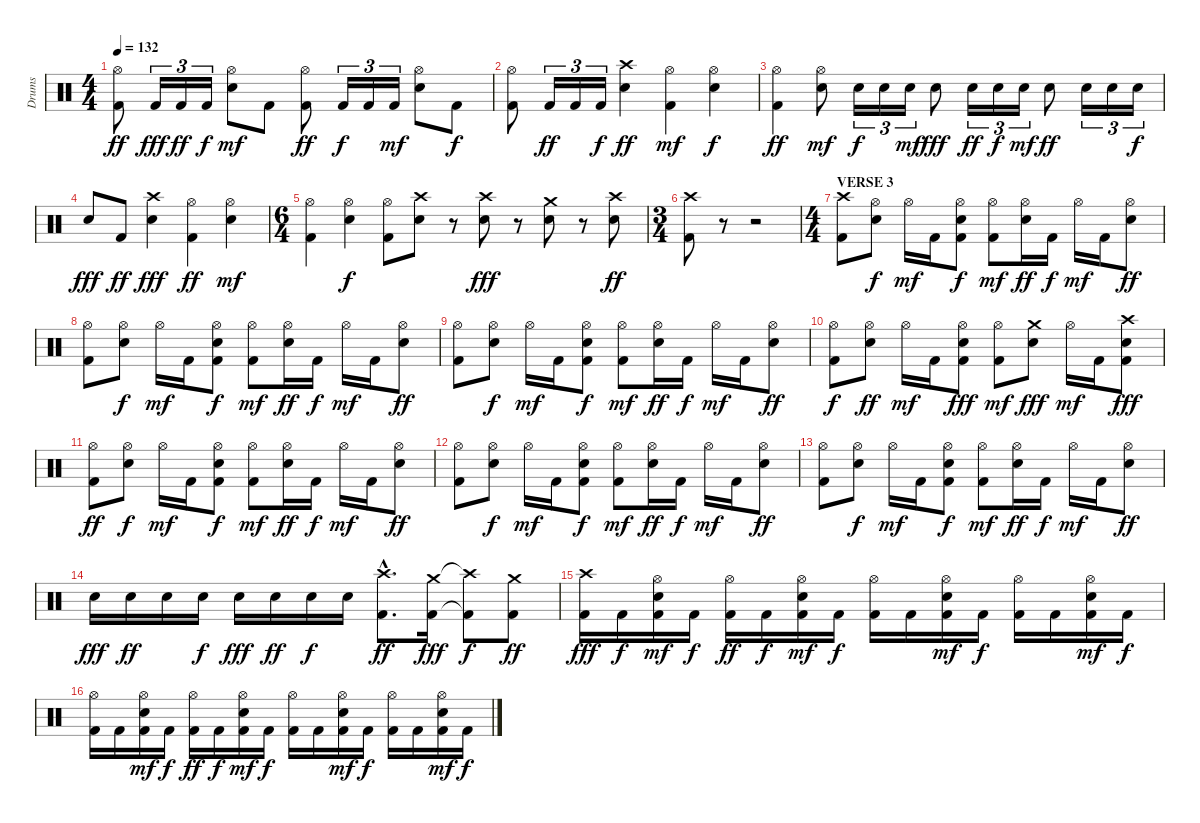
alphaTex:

\track ("Drums" "Drums") {instrument percussion}
\staff {score}
\articulation defaults
\ts (4 4)
\tempo 132
\clef neutral
\ks c
("Hi-Hat (open)" "Kick (hit) 2").8{dy ff} "Kick (hit) 2".16{tu (3 2) dy fff} "Kick (hit) 2".16{tu (3 2) dy ff} "Kick (hit) 2".16{tu (3 2) dy f} ("Hi-Hat (open)" "Electric Snare (hit)").8{dy mf} "Kick (hit) 2".8 ("Hi-Hat (open)" "Kick (hit) 2").8{dy ff} "Kick (hit) 2".16{tu (3 2) dy f} "Kick (hit) 2".16{tu (3 2)} "Kick (hit) 2".16{tu (3 2) dy mf} ("Hi-Hat (open)" "Electric Snare (hit)").8 "Kick (hit) 2".8{dy f} |
("Hi-Hat (open)" "Kick (hit) 2").8 "Kick (hit) 2".16{tu (3 2) dy ff} "Kick (hit) 2".16{tu (3 2)} "Kick (hit) 2".16{tu (3 2) dy f} ("Crash high (hit)" "Electric Snare (hit)").4{dy ff} ("Hi-Hat (open)" "Kick (hit) 2").4{dy mf} ("Hi-Hat (open)" "Electric Snare (hit)").4{dy f} |
("Hi-Hat (open)" "Kick (hit) 2").4{dy ff} ("Hi-Hat (open)" "Electric Snare (hit)").8{dy mf} "Electric Snare (hit)".16{tu (3 2) dy f} "Electric Snare (hit)".16{tu (3 2)} "Electric Snare (hit)".16{tu (3 2) dy mf} "Electric Snare (hit)".8{dy fff} "Electric Snare (hit)".16{tu (3 2) dy ff} "Electric Snare (hit)".16{tu (3 2) dy f} "Electric Snare (hit)".16{tu (3 2) dy mf} "Electric Snare (hit)".8{dy ff} "Electric Snare (hit)".16{tu (3 2)} "Electric Snare (hit)".16{tu (3 2)} "Electric Snare (hit)".16{tu (3 2) dy f} |
"Electric Snare (hit)".8{dy fff} "Kick (hit) 2".8{dy ff} ("Crash high (hit)" "Electric Snare (hit)").4{dy fff} ("Hi-Hat (open)" "Kick (hit) 2").4{dy ff} ("Hi-Hat (open)" "Electric Snare (hit)").4{dy mf} |
\ts (6 4)
("Hi-Hat (open)" "Kick (hit) 2").4 ("Hi-Hat (open)" "Electric Snare (hit)").4{dy f} ("Hi-Hat (open)" "Kick (hit) 2").8 ("Crash high (hit)" "Electric Snare (hit)").8 r.8 ("Crash high (hit)" "Electric Snare (hit)").8{dy fff} r.8 ("Crash medium (hit)" "Electric Snare (hit)").8 r.8 ("Crash high (hit)" "Electric Snare (hit)").8{dy ff} |
\ts (3 4)
("Crash high (hit)" "Kick (hit) 2").8 r.8{volume 0} r.2 |
\ts (4 4)
\section ("" "VERSE 3")
("Crash high (hit)" "Kick (hit) 2").8{volume 14} ("Hi-Hat (open)" "Electric Snare (hit)").8{dy f} "Hi-Hat (open)".16{dy mf} "Kick (hit) 2".16 ("Hi-Hat (open)" "Electric Snare (hit)" "Kick (hit) 2").8{dy f} ("Hi-Hat (open)" "Kick (hit) 2").8{dy mf} ("Hi-Hat (open)" "Electric Snare (hit)").16{dy ff} "Kick (hit) 2".16{dy f} "Hi-Hat (open)".16{dy mf} "Kick (hit) 2".16 ("Hi-Hat (open)" "Electric Snare (hit)").8{dy ff} |
("Hi-Hat (open)" "Kick (hit) 2").8 ("Hi-Hat (open)" "Electric Snare (hit)").8{dy f} "Hi-Hat (open)".16{dy mf} "Kick (hit) 2".16 ("Hi-Hat (open)" "Electric Snare (hit)" "Kick (hit) 2").8{dy f} ("Hi-Hat (open)" "Kick (hit) 2").8{dy mf} ("Hi-Hat (open)" "Electric Snare (hit)").16{dy ff} "Kick (hit) 2".16{dy f} "Hi-Hat (open)".16{dy mf} "Kick (hit) 2".16 ("Hi-Hat (open)" "Electric Snare (hit)").8{dy ff} |
("Hi-Hat (open)" "Kick (hit) 2").8 ("Hi-Hat (open)" "Electric Snare (hit)").8{dy f} "Hi-Hat (open)".16{dy mf} "Kick (hit) 2".16 ("Hi-Hat (open)" "Electric Snare (hit)" "Kick (hit) 2").8{dy f} ("Hi-Hat (open)" "Kick (hit) 2").8{dy mf} ("Hi-Hat (open)" "Electric Snare (hit)").16{dy ff} "Kick (hit) 2".16{dy f} "Hi-Hat (open)".16{dy mf} "Kick (hit) 2".16 ("Hi-Hat (open)" "Electric Snare (hit)").8{dy ff} |
("Hi-Hat (open)" "Kick (hit) 2").8{dy f} ("Hi-Hat (open)" "Electric Snare (hit)").8{dy ff} "Hi-Hat (open)".16{dy mf} "Kick (hit) 2".16 ("Hi-Hat (open)" "Electric Snare (hit)" "Kick (hit) 2").8{dy fff} ("Hi-Hat (open)" "Kick (hit) 2").8{dy mf} ("Crash medium (hit)" "Electric Snare (hit)").8{dy fff} "Hi-Hat (open)".16{dy mf} "Kick (hit) 2".16 ("Crash high (hit)" "Electric Snare (hit)" "Kick (hit) 2").8{dy fff} |
("Hi-Hat (open)" "Kick (hit) 2").8{dy ff} ("Hi-Hat (open)" "Electric Snare (hit)").8{dy f} "Hi-Hat (open)".16{dy mf} "Kick (hit) 2".16 ("Hi-Hat (open)" "Electric Snare (hit)" "Kick (hit) 2").8{dy f} ("Hi-Hat (open)" "Kick (hit) 2").8{dy mf} ("Hi-Hat (open)" "Electric Snare (hit)").16{dy ff} "Kick (hit) 2".16{dy f} "Hi-Hat (open)".16{dy mf} "Kick (hit) 2".16 ("Hi-Hat (open)" "Electric Snare (hit)").8{dy ff} |
("Hi-Hat (open)" "Kick (hit) 2").8 ("Hi-Hat (open)" "Electric Snare (hit)").8{dy f} "Hi-Hat (open)".16{dy mf} "Kick (hit) 2".16 ("Hi-Hat (open)" "Electric Snare (hit)" "Kick (hit) 2").8{dy f} ("Hi-Hat (open)" "Kick (hit) 2").8{dy mf} ("Hi-Hat (open)" "Electric Snare (hit)").16{dy ff} "Kick (hit) 2".16{dy f} "Hi-Hat (open)".16{dy mf} "Kick (hit) 2".16 ("Hi-Hat (open)" "Electric Snare (hit)").8{dy ff} |
("Hi-Hat (open)" "Kick (hit) 2").8 ("Hi-Hat (open)" "Electric Snare (hit)").8{dy f} "Hi-Hat (open)".16{dy mf} "Kick (hit) 2".16 ("Hi-Hat (open)" "Electric Snare (hit)" "Kick (hit) 2").8{dy f} ("Hi-Hat (open)" "Kick (hit) 2").8{dy mf} ("Hi-Hat (open)" "Electric Snare (hit)").16{dy ff} "Kick (hit) 2".16{dy f} "Hi-Hat (open)".16{dy mf} "Kick (hit) 2".16 ("Hi-Hat (open)" "Electric Snare (hit)").8{dy ff} |
"Electric Snare (hit)".16{dy fff} "Electric Snare (hit)".16{dy ff} "Electric Snare (hit)".16 "Electric Snare (hit)".16{dy f} "Electric Snare (hit)".16{dy fff} "Electric Snare (hit)".16{dy ff} "Electric Snare (hit)".16{dy f} "Electric Snare (hit)".16 ("Crash high (hit)"{hac} "Kick (hit) 2"{hac}).8{d dy ff} ("Crash medium (hit)" "Kick (hit) 2").16{dy fff} ("Crash high (hit)"{t} "Kick (hit) 2"{t}).8{dy f} ("Crash medium (hit)" "Kick (hit) 2").8{dy ff} |
("Crash high (hit)" "Kick (hit) 2").16{dy fff} "Kick (hit) 2".16{dy f} ("Hi-Hat (open)" "Electric Snare (hit)" "Kick (hit) 2").16{dy mf} "Kick (hit) 2".16{dy f} ("Hi-Hat (open)" "Kick (hit) 2").16{dy ff} "Kick (hit) 2".16{dy f} ("Hi-Hat (open)" "Electric Snare (hit)" "Kick (hit) 2").16{dy mf} "Kick (hit) 2".16{dy f} ("Hi-Hat (open)" "Kick (hit) 2").16 "Kick (hit) 2".16 ("Hi-Hat (open)" "Electric Snare (hit)" "Kick (hit) 2").16{dy mf} "Kick (hit) 2".16{dy f} ("Hi-Hat (open)" "Kick (hit) 2").16 "Kick (hit) 2".16 ("Hi-Hat (open)" "Electric Snare (hit)" "Kick (hit) 2").16{dy mf} "Kick (hit) 2".16{dy f} |
("Hi-Hat (open)" "Kick (hit) 2").16 "Kick (hit) 2".16 ("Hi-Hat (open)" "Electric Snare (hit)" "Kick (hit) 2").16{dy mf} "Kick (hit) 2".16{dy f} ("Hi-Hat (open)" "Kick (hit) 2").16{dy ff} "Kick (hit) 2".16{dy f} ("Hi-Hat (open)" "Electric Snare (hit)" "Kick (hit) 2").16{dy mf} "Kick (hit) 2".16{dy f} ("Hi-Hat (open)" "Kick (hit) 2").16 "Kick (hit) 2".16 ("Hi-Hat (open)" "Electric Snare (hit)" "Kick (hit) 2").16{dy mf} "Kick (hit) 2".16{dy f} ("Hi-Hat (open)" "Kick (hit) 2").16 "Kick (hit) 2".16 ("Hi-Hat (open)" "Electric Snare (hit)" "Kick (hit) 2").16{dy mf} "Kick (hit) 2".16{dy f}
